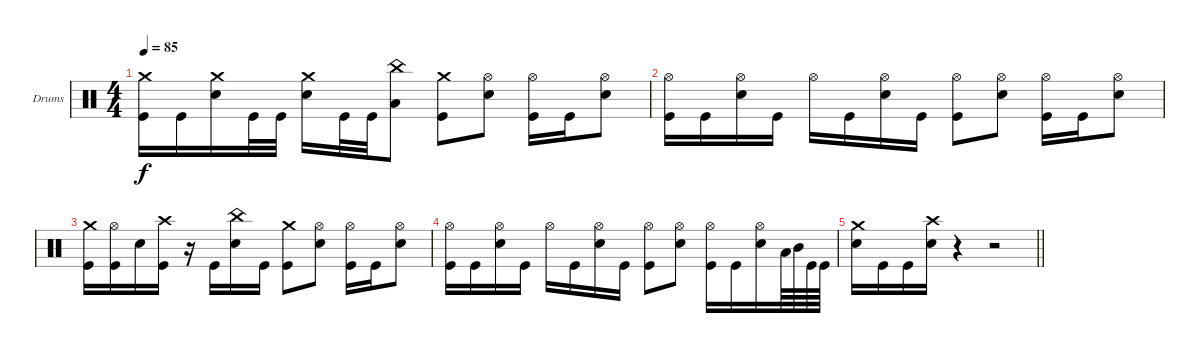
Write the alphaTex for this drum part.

\defaultSystemsLayout 4
\bracketExtendMode groupsimilarinstruments
\firstSystemTrackNameOrientation horizontal
\otherSystemsTrackNameOrientation horizontal
\track ("Drumkit" "Drums") {instrument percussion}
\staff {score}
\articulation defaults
\ts (4 4)
\tempo 85
\clef neutral
\ks c
("Kick (hit)" "Crash medium (hit)").16{dy f} "Kick (hit)".16 ("Snare (hit) 2" "Crash medium (hit)").16 "Kick (hit)".32 "Kick (hit)".32 ("Crash medium (hit)" "Snare (hit) 2").16 "Kick (hit)".32 "Kick (hit)".32 ("Low Tom (hit)" "China (hit)").8 ("Kick (hit)" "Crash medium (hit)").8 ("Snare (hit) 2" "Hi-Hat (open)").8 ("Kick (hit)" "Hi-Hat (open)").16 "Kick (hit)".16 ("Snare (hit) 2" "Hi-Hat (open)").8 |
("Kick (hit)" "Hi-Hat (open)").16 "Kick (hit)".16 ("Snare (hit) 2" "Hi-Hat (open)").16 "Kick (hit)".16 "Hi-Hat (open)".16 "Kick (hit)".16 ("Snare (hit) 2" "Hi-Hat (open)").16 "Kick (hit)".16 ("Kick (hit)" "Hi-Hat (open)").8 ("Snare (hit) 2" "Hi-Hat (open)").8 ("Kick (hit)" "Hi-Hat (open)").16 "Kick (hit)".16 ("Snare (hit) 2" "Hi-Hat (open)").8 |
("Kick (hit)" "Crash medium (hit)").16 ("Kick (hit)" "Hi-Hat (open)").16 "Snare (hit) 2".16 ("Kick (hit)" "Crash high (hit)").16 r.16 "Kick (hit)".16 ("Snare (hit) 2" "China (hit)").16 "Kick (hit)".16 ("Kick (hit)" "Crash medium (hit)").8 ("Snare (hit) 2" "Hi-Hat (open)").8 ("Kick (hit)" "Hi-Hat (open)").16 "Kick (hit)".16 ("Snare (hit) 2" "Hi-Hat (open)").8 |
("Kick (hit)" "Hi-Hat (open)").16 "Kick (hit)".16 ("Snare (hit) 2" "Hi-Hat (open)").16 "Kick (hit)".16 "Hi-Hat (open)".16 "Kick (hit)".16 ("Snare (hit) 2" "Hi-Hat (open)").16 "Kick (hit)".16 ("Kick (hit)" "Hi-Hat (open)").8 ("Snare (hit) 2" "Hi-Hat (open)").8 ("Kick (hit)" "Hi-Hat (open)").16 "Kick (hit)".16 ("Snare (hit) 2" "Hi-Hat (open)").16 "Low Tom (hit)".64 "Mid Tom (hit)".64 "Kick (hit)".64 "Kick (hit)".64 |
\barLineRight lightlight
("Snare (hit) 2" "Crash medium (hit)").16 "Kick (hit)".16 "Kick (hit)".16 ("Snare (hit) 2" "Crash high (hit)").16 r.4 r.2
